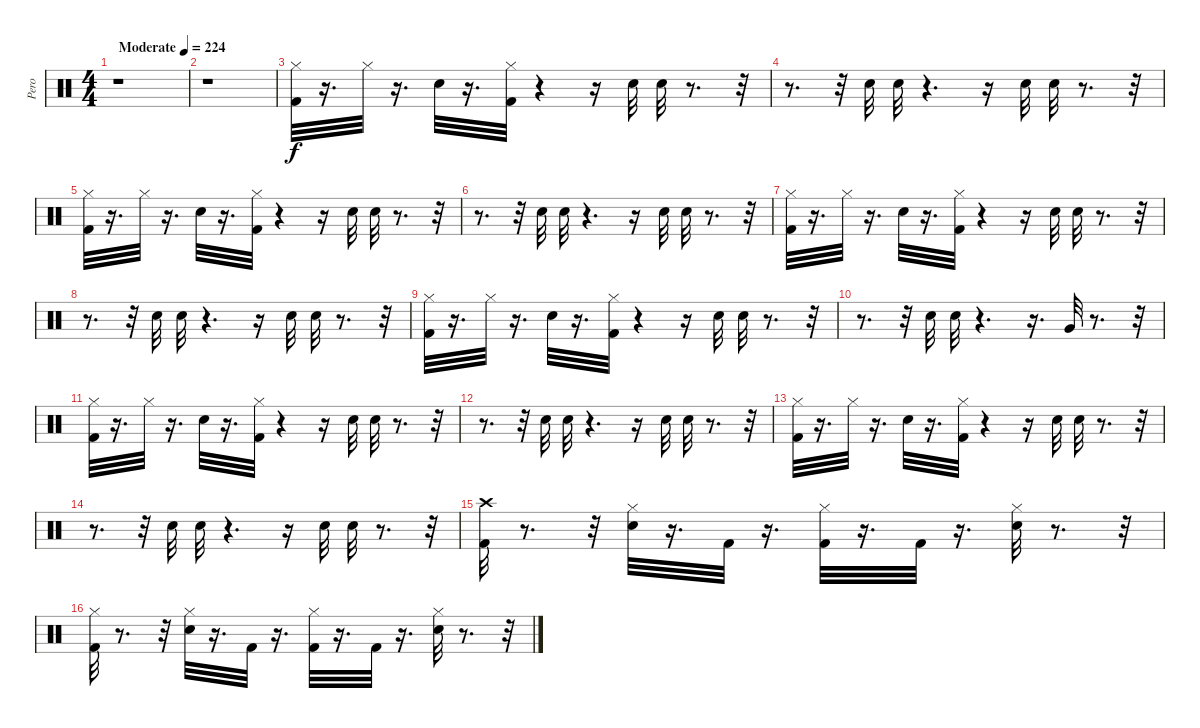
\track ("Pero" "Pero") {instrument percussion}
\staff {score}
\articulation defaults
\ts (4 4)
\tempo (224 "Moderate")
\clef neutral
\ks c
r.1{dy f} |
r.1 |
("Hi-Hat (closed)" "Kick (hit) 2").32{volume 15} r.16{d} "Hi-Hat (closed)".32{volume 15} r.16{d} "Snare (hit) 2".32{volume 15} r.16{d} ("Hi-Hat (closed)" "Kick (hit) 2").32{volume 15} r.4 r.16 "Snare (hit) 2".32{volume 15} "Snare (hit) 2".32{volume 15} r.8{d} r.32 |
r.8{d} r.32 "Snare (hit) 2".32{volume 15} "Snare (hit) 2".32{volume 15} r.4{d} r.16 "Snare (hit) 2".32{volume 15} "Snare (hit) 2".32{volume 15} r.8{d} r.32 |
("Hi-Hat (closed)" "Kick (hit) 2").32{volume 15} r.16{d} "Hi-Hat (closed)".32{volume 15} r.16{d} "Snare (hit) 2".32{volume 15} r.16{d} ("Hi-Hat (closed)" "Kick (hit) 2").32{volume 15} r.4 r.16 "Snare (hit) 2".32{volume 15} "Snare (hit) 2".32{volume 15} r.8{d} r.32 |
r.8{d} r.32 "Snare (hit) 2".32{volume 15} "Snare (hit) 2".32 r.4{d} r.16 "Snare (hit) 2".32 "Snare (hit) 2".32 r.8{d} r.32 |
("Hi-Hat (closed)" "Kick (hit) 2").32 r.16{d} "Hi-Hat (closed)".32 r.16{d} "Snare (hit) 2".32 r.16{d} ("Hi-Hat (closed)" "Kick (hit) 2").32 r.4 r.16 "Snare (hit) 2".32 "Snare (hit) 2".32 r.8{d} r.32 |
r.8{d} r.32 "Snare (hit) 2".32 "Snare (hit) 2".32 r.4{d} r.16 "Snare (hit) 2".32 "Snare (hit) 2".32 r.8{d} r.32 |
("Hi-Hat (closed)" "Kick (hit) 2").32 r.16{d} "Hi-Hat (closed)".32 r.16{d} "Snare (hit) 2".32 r.16{d} ("Hi-Hat (closed)" "Kick (hit) 2").32 r.4 r.16 "Snare (hit) 2".32 "Snare (hit) 2".32 r.8{d} r.32 |
r.8{d} r.32 "Snare (hit) 2".32 "Snare (hit) 2".32 r.4{d} r.16{d} "Very Low Tom (hit)".32 r.8{d} r.32 |
("Hi-Hat (closed)" "Kick (hit) 2").32 r.16{d} "Hi-Hat (closed)".32 r.16{d} "Snare (hit) 2".32 r.16{d} ("Hi-Hat (closed)" "Kick (hit) 2").32 r.4 r.16 "Snare (hit) 2".32 "Snare (hit) 2".32 r.8{d} r.32 |
r.8{d} r.32 "Snare (hit) 2".32 "Snare (hit) 2".32 r.4{d} r.16 "Snare (hit) 2".32 "Snare (hit) 2".32 r.8{d} r.32 |
("Hi-Hat (closed)" "Kick (hit) 2").32 r.16{d} "Hi-Hat (closed)".32 r.16{d} "Snare (hit) 2".32 r.16{d} ("Hi-Hat (closed)" "Kick (hit) 2").32 r.4 r.16 "Snare (hit) 2".32 "Snare (hit) 2".32 r.8{d} r.32 |
r.8{d} r.32 "Snare (hit) 2".32 "Snare (hit) 2".32 r.4{d} r.16 "Snare (hit) 2".32 "Snare (hit) 2".32 r.8{d} r.32 |
("Crash high (hit)" "Kick (hit) 2").32 r.8{d} r.32 ("Hi-Hat (closed)" "Snare (hit) 2").32 r.16{d} "Kick (hit) 2".32 r.16{d} ("Hi-Hat (closed)" "Kick (hit) 2").32 r.16{d} "Kick (hit) 2".32 r.16{d} ("Hi-Hat (closed)" "Snare (hit) 2").32 r.8{d} r.32 |
("Kick (hit) 2" "Hi-Hat (closed)").32 r.8{d} r.32 ("Hi-Hat (closed)" "Snare (hit) 2").32 r.16{d} "Kick (hit) 2".32 r.16{d} ("Hi-Hat (closed)" "Kick (hit) 2").32 r.16{d} "Kick (hit) 2".32 r.16{d} ("Hi-Hat (closed)" "Snare (hit) 2").32 r.8{d} r.32
